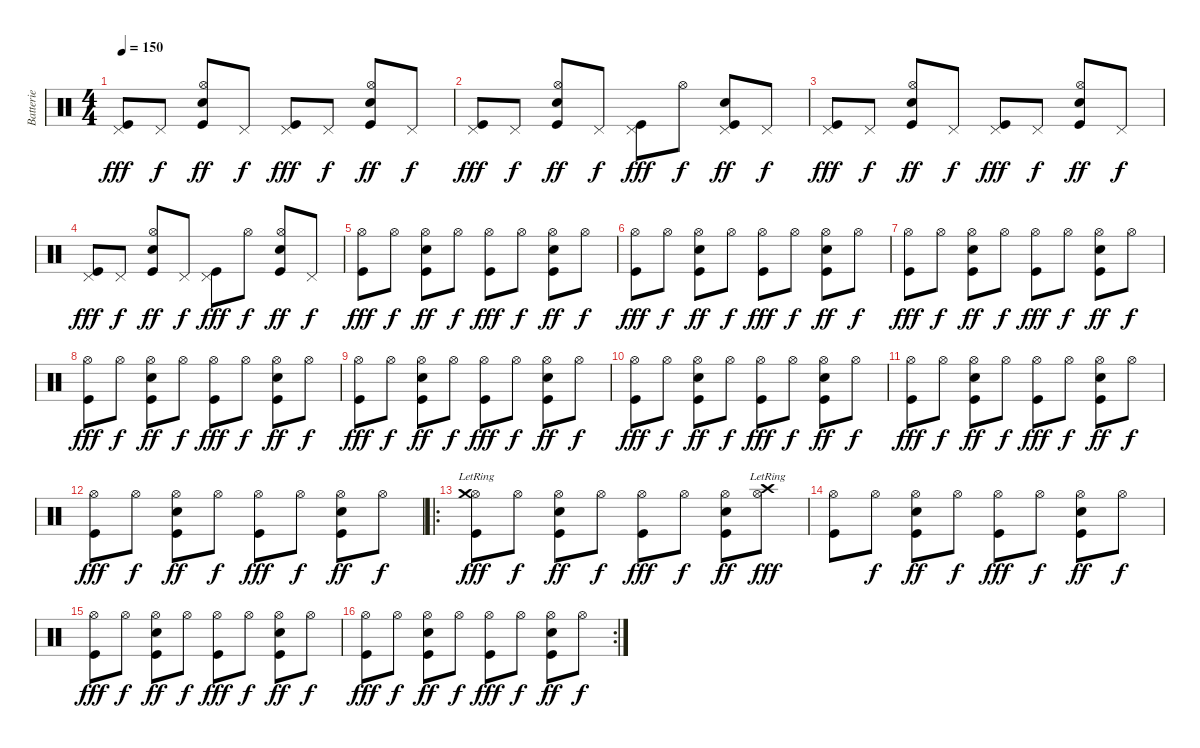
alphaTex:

\track ("Batterie" "Batterie") {instrument percussion}
\staff {score}
\articulation defaults
\ts (4 4)
\tempo 150
\clef neutral
\ks c
("Pedal Hi-Hat (hit)" "Kick (hit)").8{dy fff} "Pedal Hi-Hat (hit)".8{dy f} ("Hi-Hat (open)" "Kick (hit)" "Electric Snare (hit)").8{dy ff} "Pedal Hi-Hat (hit)".8{dy f} ("Pedal Hi-Hat (hit)" "Kick (hit)").8{dy fff} "Pedal Hi-Hat (hit)".8{dy f} ("Hi-Hat (open)" "Kick (hit)" "Electric Snare (hit)").8{dy ff} "Pedal Hi-Hat (hit)".8{dy f} |
("Pedal Hi-Hat (hit)" "Kick (hit)").8{dy fff} "Pedal Hi-Hat (hit)".8{dy f} ("Hi-Hat (open)" "Kick (hit)" "Electric Snare (hit)").8{dy ff} "Pedal Hi-Hat (hit)".8{dy f} ("Pedal Hi-Hat (hit)" "Kick (hit)").8{dy fff} "Hi-Hat (open)".8{dy f} ("Pedal Hi-Hat (hit)" "Kick (hit)" "Electric Snare (hit)").8{dy ff} "Pedal Hi-Hat (hit)".8{dy f} |
("Pedal Hi-Hat (hit)" "Kick (hit)").8{dy fff} "Pedal Hi-Hat (hit)".8{dy f} ("Hi-Hat (open)" "Kick (hit)" "Electric Snare (hit)").8{dy ff} "Pedal Hi-Hat (hit)".8{dy f} ("Pedal Hi-Hat (hit)" "Kick (hit)").8{dy fff} "Pedal Hi-Hat (hit)".8{dy f} ("Hi-Hat (open)" "Kick (hit)" "Electric Snare (hit)").8{dy ff} "Pedal Hi-Hat (hit)".8{dy f} |
("Pedal Hi-Hat (hit)" "Kick (hit)").8{dy fff} "Pedal Hi-Hat (hit)".8{dy f} ("Hi-Hat (open)" "Kick (hit)" "Electric Snare (hit)").8{dy ff} "Pedal Hi-Hat (hit)".8{dy f} ("Pedal Hi-Hat (hit)" "Kick (hit)").8{dy fff} "Hi-Hat (open)".8{dy f} ("Hi-Hat (open)" "Kick (hit)" "Electric Snare (hit)").8{dy ff} "Pedal Hi-Hat (hit)".8{dy f} |
("Hi-Hat (open)" "Kick (hit)").8{dy fff} "Hi-Hat (open)".8{dy f} ("Hi-Hat (open)" "Kick (hit)" "Electric Snare (hit)").8{dy ff} "Hi-Hat (open)".8{dy f} ("Hi-Hat (open)" "Kick (hit)").8{dy fff} "Hi-Hat (open)".8{dy f} ("Hi-Hat (open)" "Kick (hit)" "Electric Snare (hit)").8{dy ff} "Hi-Hat (open)".8{dy f} |
("Hi-Hat (open)" "Kick (hit)").8{dy fff} "Hi-Hat (open)".8{dy f} ("Hi-Hat (open)" "Kick (hit)" "Electric Snare (hit)").8{dy ff} "Hi-Hat (open)".8{dy f} ("Hi-Hat (open)" "Kick (hit)").8{dy fff} "Hi-Hat (open)".8{dy f} ("Hi-Hat (open)" "Kick (hit)" "Electric Snare (hit)").8{dy ff} "Hi-Hat (open)".8{dy f} |
("Hi-Hat (open)" "Kick (hit)").8{dy fff} "Hi-Hat (open)".8{dy f} ("Hi-Hat (open)" "Kick (hit)" "Electric Snare (hit)").8{dy ff} "Hi-Hat (open)".8{dy f} ("Hi-Hat (open)" "Kick (hit)").8{dy fff} "Hi-Hat (open)".8{dy f} ("Hi-Hat (open)" "Kick (hit)" "Electric Snare (hit)").8{dy ff} "Hi-Hat (open)".8{dy f} |
("Hi-Hat (open)" "Kick (hit)").8{dy fff} "Hi-Hat (open)".8{dy f} ("Hi-Hat (open)" "Kick (hit)" "Electric Snare (hit)").8{dy ff} "Hi-Hat (open)".8{dy f} ("Hi-Hat (open)" "Kick (hit)").8{dy fff} "Hi-Hat (open)".8{dy f} ("Hi-Hat (open)" "Kick (hit)" "Electric Snare (hit)").8{dy ff} "Hi-Hat (open)".8{dy f} |
("Hi-Hat (open)" "Kick (hit)").8{dy fff} "Hi-Hat (open)".8{dy f} ("Hi-Hat (open)" "Kick (hit)" "Electric Snare (hit)").8{dy ff} "Hi-Hat (open)".8{dy f} ("Hi-Hat (open)" "Kick (hit)").8{dy fff} "Hi-Hat (open)".8{dy f} ("Hi-Hat (open)" "Kick (hit)" "Electric Snare (hit)").8{dy ff} "Hi-Hat (open)".8{dy f} |
("Hi-Hat (open)" "Kick (hit)").8{dy fff} "Hi-Hat (open)".8{dy f} ("Hi-Hat (open)" "Kick (hit)" "Electric Snare (hit)").8{dy ff} "Hi-Hat (open)".8{dy f} ("Hi-Hat (open)" "Kick (hit)").8{dy fff} "Hi-Hat (open)".8{dy f} ("Hi-Hat (open)" "Kick (hit)" "Electric Snare (hit)").8{dy ff} "Hi-Hat (open)".8{dy f} |
("Hi-Hat (open)" "Kick (hit)").8{dy fff} "Hi-Hat (open)".8{dy f} ("Hi-Hat (open)" "Kick (hit)" "Electric Snare (hit)").8{dy ff} "Hi-Hat (open)".8{dy f} ("Hi-Hat (open)" "Kick (hit)").8{dy fff} "Hi-Hat (open)".8{dy f} ("Hi-Hat (open)" "Kick (hit)" "Electric Snare (hit)").8{dy ff} "Hi-Hat (open)".8{dy f} |
("Hi-Hat (open)" "Kick (hit)").8{dy fff} "Hi-Hat (open)".8{dy f} ("Hi-Hat (open)" "Kick (hit)" "Electric Snare (hit)").8{dy ff} "Hi-Hat (open)".8{dy f} ("Hi-Hat (open)" "Kick (hit)").8{dy fff} "Hi-Hat (open)".8{dy f} ("Hi-Hat (open)" "Kick (hit)" "Electric Snare (hit)").8{dy ff} "Hi-Hat (open)".8{dy f} |
\ro
("Hi-Hat (open)" "Kick (hit)" "Crash medium (hit)"{lr}).8{dy fff} "Hi-Hat (open)".8{dy f} ("Hi-Hat (open)" "Kick (hit)" "Electric Snare (hit)").8{dy ff} "Hi-Hat (open)".8{dy f} ("Hi-Hat (open)" "Kick (hit)").8{dy fff} "Hi-Hat (open)".8{dy f} ("Hi-Hat (open)" "Kick (hit)" "Electric Snare (hit)").8{dy ff} ("Hi-Hat (open)" "Crash high (hit)"{lr}).8{dy fff} |
("Hi-Hat (open)" "Kick (hit)").8 "Hi-Hat (open)".8{dy f} ("Hi-Hat (open)" "Kick (hit)" "Electric Snare (hit)").8{dy ff} "Hi-Hat (open)".8{dy f} ("Hi-Hat (open)" "Kick (hit)").8{dy fff} "Hi-Hat (open)".8{dy f} ("Hi-Hat (open)" "Kick (hit)" "Electric Snare (hit)").8{dy ff} "Hi-Hat (open)".8{dy f} |
("Hi-Hat (open)" "Kick (hit)").8{dy fff} "Hi-Hat (open)".8{dy f} ("Hi-Hat (open)" "Kick (hit)" "Electric Snare (hit)").8{dy ff} "Hi-Hat (open)".8{dy f} ("Hi-Hat (open)" "Kick (hit)").8{dy fff} "Hi-Hat (open)".8{dy f} ("Hi-Hat (open)" "Kick (hit)" "Electric Snare (hit)").8{dy ff} "Hi-Hat (open)".8{dy f} |
\rc 2
("Hi-Hat (open)" "Kick (hit)").8{dy fff} "Hi-Hat (open)".8{dy f} ("Hi-Hat (open)" "Kick (hit)" "Electric Snare (hit)").8{dy ff} "Hi-Hat (open)".8{dy f} ("Hi-Hat (open)" "Kick (hit)").8{dy fff} "Hi-Hat (open)".8{dy f} ("Hi-Hat (open)" "Kick (hit)" "Electric Snare (hit)").8{dy ff} "Hi-Hat (open)".8{dy f}
